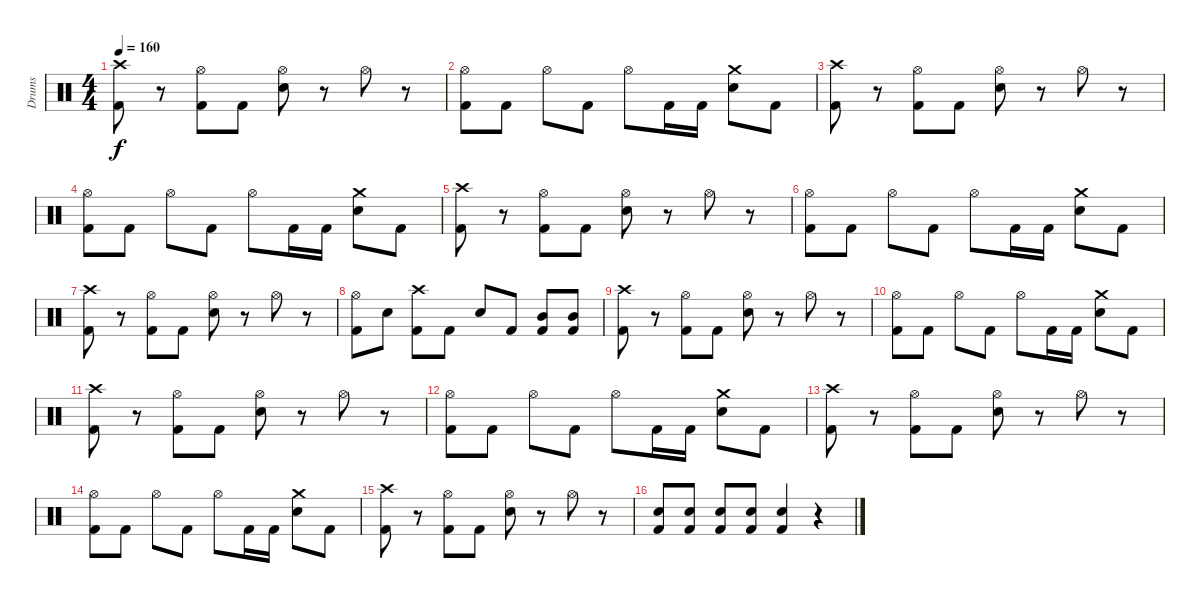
\track ("Drums" "Drums") {instrument percussion}
\staff {score}
\articulation defaults
\ts (4 4)
\section ("" "")
\tempo 160
\clef neutral
\ks c
("Crash high (hit)" "Kick (hit) 2").8{dy f} r.8 ("Hi-Hat (open)" "Kick (hit) 2").8 "Kick (hit) 2".8 ("Hi-Hat (open)" "Snare (hit) 2").8 r.8 "Hi-Hat (open)".8 r.8 |
("Hi-Hat (open)" "Kick (hit) 2").8 "Kick (hit) 2".8 "Hi-Hat (open)".8 "Kick (hit) 2".8 "Hi-Hat (open)".8 "Kick (hit) 2".16 "Kick (hit) 2".16 ("Crash medium (hit)" "Snare (hit) 2").8 "Kick (hit) 2".8 |
("Crash high (hit)" "Kick (hit) 2").8 r.8 ("Hi-Hat (open)" "Kick (hit) 2").8 "Kick (hit) 2".8 ("Hi-Hat (open)" "Snare (hit) 2").8 r.8 "Hi-Hat (open)".8 r.8 |
("Hi-Hat (open)" "Kick (hit) 2").8 "Kick (hit) 2".8 "Hi-Hat (open)".8 "Kick (hit) 2".8 "Hi-Hat (open)".8 "Kick (hit) 2".16 "Kick (hit) 2".16 ("Crash medium (hit)" "Snare (hit) 2").8 "Kick (hit) 2".8 |
("Crash high (hit)" "Kick (hit) 2").8 r.8 ("Hi-Hat (open)" "Kick (hit) 2").8 "Kick (hit) 2".8 ("Hi-Hat (open)" "Snare (hit) 2").8 r.8 "Hi-Hat (open)".8 r.8 |
("Hi-Hat (open)" "Kick (hit) 2").8 "Kick (hit) 2".8 "Hi-Hat (open)".8 "Kick (hit) 2".8 "Hi-Hat (open)".8 "Kick (hit) 2".16 "Kick (hit) 2".16 ("Crash medium (hit)" "Snare (hit) 2").8 "Kick (hit) 2".8 |
("Crash high (hit)" "Kick (hit) 2").8 r.8 ("Hi-Hat (open)" "Kick (hit) 2").8 "Kick (hit) 2".8 ("Hi-Hat (open)" "Snare (hit) 2").8 r.8 "Hi-Hat (open)".8 r.8 |
("Hi-Hat (open)" "Kick (hit) 2").8 "Snare (hit) 2".8 ("Crash high (hit)" "Kick (hit) 2").8 "Kick (hit) 2".8 "Snare (hit) 2".8 "Kick (hit) 2".8 ("Mid Tom (hit)" "Kick (hit) 2").8 ("Mid Tom (hit)" "Kick (hit) 2").8 |
\section ("" "")
("Crash high (hit)" "Kick (hit) 2").8 r.8 ("Hi-Hat (open)" "Kick (hit) 2").8 "Kick (hit) 2".8 ("Hi-Hat (open)" "Snare (hit) 2").8 r.8 "Hi-Hat (open)".8 r.8 |
("Hi-Hat (open)" "Kick (hit) 2").8 "Kick (hit) 2".8 "Hi-Hat (open)".8 "Kick (hit) 2".8 "Hi-Hat (open)".8 "Kick (hit) 2".16 "Kick (hit) 2".16 ("Crash medium (hit)" "Snare (hit) 2").8 "Kick (hit) 2".8 |
("Crash high (hit)" "Kick (hit) 2").8 r.8 ("Hi-Hat (open)" "Kick (hit) 2").8 "Kick (hit) 2".8 ("Hi-Hat (open)" "Snare (hit) 2").8 r.8 "Hi-Hat (open)".8 r.8 |
("Hi-Hat (open)" "Kick (hit) 2").8 "Kick (hit) 2".8 "Hi-Hat (open)".8 "Kick (hit) 2".8 "Hi-Hat (open)".8 "Kick (hit) 2".16 "Kick (hit) 2".16 ("Crash medium (hit)" "Snare (hit) 2").8 "Kick (hit) 2".8 |
("Crash high (hit)" "Kick (hit) 2").8 r.8 ("Hi-Hat (open)" "Kick (hit) 2").8 "Kick (hit) 2".8 ("Hi-Hat (open)" "Snare (hit) 2").8 r.8 "Hi-Hat (open)".8 r.8 |
("Hi-Hat (open)" "Kick (hit) 2").8 "Kick (hit) 2".8 "Hi-Hat (open)".8 "Kick (hit) 2".8 "Hi-Hat (open)".8 "Kick (hit) 2".16 "Kick (hit) 2".16 ("Crash medium (hit)" "Snare (hit) 2").8 "Kick (hit) 2".8 |
("Crash high (hit)" "Kick (hit) 2").8 r.8 ("Hi-Hat (open)" "Kick (hit) 2").8 "Kick (hit) 2".8 ("Hi-Hat (open)" "Snare (hit) 2").8 r.8 "Hi-Hat (open)".8 r.8 |
("Snare (hit) 2" "Kick (hit) 2").8 ("Snare (hit) 2" "Kick (hit) 2").8 ("Snare (hit) 2" "Kick (hit) 2").8 ("Snare (hit) 2" "Kick (hit) 2").8 ("Snare (hit) 2" "Kick (hit) 2").4 r.4
